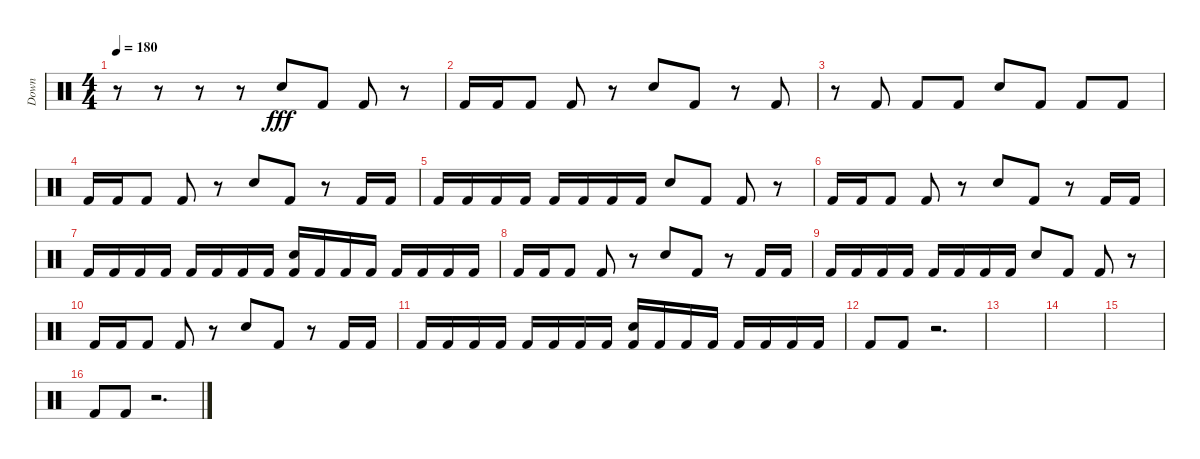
\track ("Down" "Down") {instrument percussion}
\staff {score}
\articulation defaults
\ts (4 4)
\tempo 180
\clef neutral
\ks c
r.8{dy fff} r.8 r.8 r.8 "Electric Snare (hit)".8 "Kick (hit) 2".8 "Kick (hit) 2".8 r.8 |
"Kick (hit) 2".16 "Kick (hit) 2".16 "Kick (hit) 2".8 "Kick (hit) 2".8 r.8 "Electric Snare (hit)".8 "Kick (hit) 2".8 r.8 "Kick (hit) 2".8 |
r.8 "Kick (hit) 2".8 "Kick (hit) 2".8 "Kick (hit) 2".8 "Electric Snare (hit)".8 "Kick (hit) 2".8 "Kick (hit) 2".8 "Kick (hit) 2".8 |
"Kick (hit) 2".16 "Kick (hit) 2".16 "Kick (hit) 2".8 "Kick (hit) 2".8 r.8 "Electric Snare (hit)".8 "Kick (hit) 2".8 r.8 "Kick (hit) 2".16 "Kick (hit) 2".16 |
"Kick (hit) 2".16 "Kick (hit) 2".16 "Kick (hit) 2".16 "Kick (hit) 2".16 "Kick (hit) 2".16 "Kick (hit) 2".16 "Kick (hit) 2".16 "Kick (hit) 2".16 "Electric Snare (hit)".8 "Kick (hit) 2".8 "Kick (hit) 2".8 r.8 |
"Kick (hit) 2".16 "Kick (hit) 2".16 "Kick (hit) 2".8 "Kick (hit) 2".8 r.8 "Electric Snare (hit)".8 "Kick (hit) 2".8 r.8 "Kick (hit) 2".16 "Kick (hit) 2".16 |
"Kick (hit) 2".16 "Kick (hit) 2".16 "Kick (hit) 2".16 "Kick (hit) 2".16 "Kick (hit) 2".16 "Kick (hit) 2".16 "Kick (hit) 2".16 "Kick (hit) 2".16 ("Electric Snare (hit)" "Kick (hit) 2").16 "Kick (hit) 2".16 "Kick (hit) 2".16 "Kick (hit) 2".16 "Kick (hit) 2".16 "Kick (hit) 2".16 "Kick (hit) 2".16 "Kick (hit) 2".16 |
"Kick (hit) 2".16 "Kick (hit) 2".16 "Kick (hit) 2".8 "Kick (hit) 2".8 r.8 "Electric Snare (hit)".8 "Kick (hit) 2".8 r.8 "Kick (hit) 2".16 "Kick (hit) 2".16 |
"Kick (hit) 2".16 "Kick (hit) 2".16 "Kick (hit) 2".16 "Kick (hit) 2".16 "Kick (hit) 2".16 "Kick (hit) 2".16 "Kick (hit) 2".16 "Kick (hit) 2".16 "Electric Snare (hit)".8 "Kick (hit) 2".8 "Kick (hit) 2".8 r.8 |
"Kick (hit) 2".16 "Kick (hit) 2".16 "Kick (hit) 2".8 "Kick (hit) 2".8 r.8 "Electric Snare (hit)".8 "Kick (hit) 2".8 r.8 "Kick (hit) 2".16 "Kick (hit) 2".16 |
"Kick (hit) 2".16 "Kick (hit) 2".16 "Kick (hit) 2".16 "Kick (hit) 2".16 "Kick (hit) 2".16 "Kick (hit) 2".16 "Kick (hit) 2".16 "Kick (hit) 2".16 ("Electric Snare (hit)" "Kick (hit) 2").16 "Kick (hit) 2".16 "Kick (hit) 2".16 "Kick (hit) 2".16 "Kick (hit) 2".16 "Kick (hit) 2".16 "Kick (hit) 2".16 "Kick (hit) 2".16 |
"Kick (hit) 2".8 "Kick (hit) 2".8 r.2{d} |
|
|
|
"Kick (hit) 2".8 "Kick (hit) 2".8 r.2{d}
